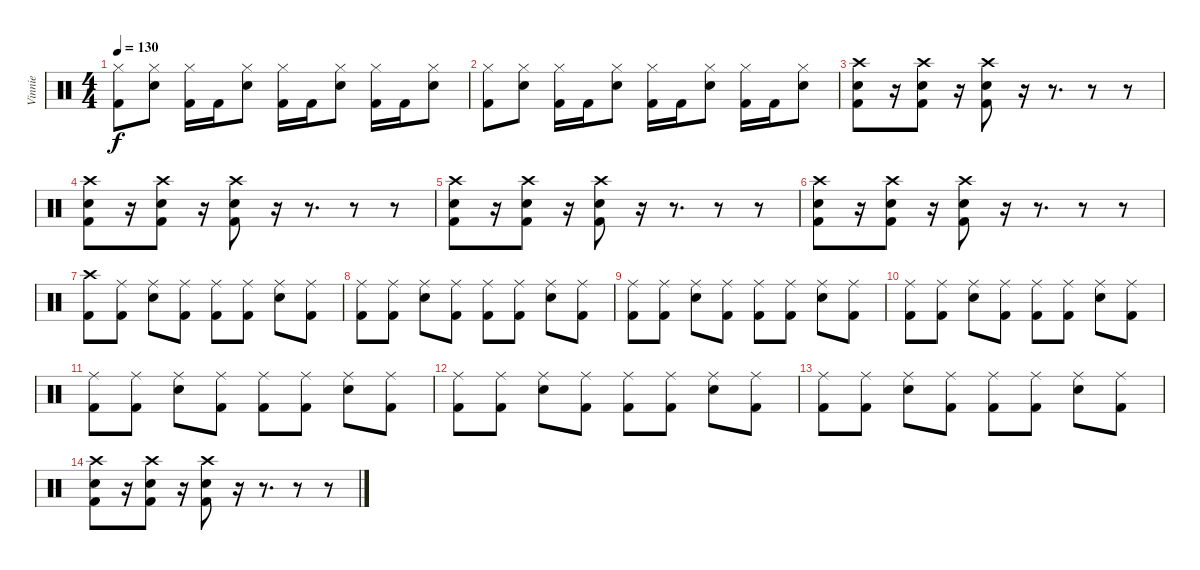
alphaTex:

\track ("Vinnie" "Vinnie") {instrument percussion}
\staff {score}
\articulation defaults
\ts (4 4)
\tempo 130
\clef neutral
\ks c
("Hi-Hat (closed)" "Kick (hit) 2").8{dy f} ("Hi-Hat (closed)" "Electric Snare (hit)").8 ("Hi-Hat (closed)" "Kick (hit) 2").16 "Kick (hit) 2".16 ("Hi-Hat (closed)" "Electric Snare (hit)").8 ("Hi-Hat (closed)" "Kick (hit) 2").16 "Kick (hit) 2".16 ("Hi-Hat (closed)" "Electric Snare (hit)").8 ("Hi-Hat (closed)" "Kick (hit) 2").16 "Kick (hit) 2".16 ("Hi-Hat (closed)" "Electric Snare (hit)").8 |
("Hi-Hat (closed)" "Kick (hit) 2").8 ("Hi-Hat (closed)" "Electric Snare (hit)").8 ("Hi-Hat (closed)" "Kick (hit) 2").16 "Kick (hit) 2".16 ("Hi-Hat (closed)" "Electric Snare (hit)").8 ("Hi-Hat (closed)" "Kick (hit) 2").16 "Kick (hit) 2".16 ("Hi-Hat (closed)" "Electric Snare (hit)").8 ("Hi-Hat (closed)" "Kick (hit) 2").16 "Kick (hit) 2".16 ("Hi-Hat (closed)" "Electric Snare (hit)").8 |
("Crash high (hit)" "Electric Snare (hit)" "Kick (hit) 2").8 r.16 ("Crash high (hit)" "Electric Snare (hit)" "Kick (hit) 2").8 r.16 ("Crash high (hit)" "Electric Snare (hit)" "Kick (hit) 2").8 r.16 r.8{d} r.8 r.8 |
("Crash high (hit)" "Electric Snare (hit)" "Kick (hit) 2").8 r.16 ("Crash high (hit)" "Electric Snare (hit)" "Kick (hit) 2").8 r.16 ("Crash high (hit)" "Electric Snare (hit)" "Kick (hit) 2").8 r.16 r.8{d} r.8 r.8 |
("Crash high (hit)" "Electric Snare (hit)" "Kick (hit) 2").8 r.16 ("Crash high (hit)" "Electric Snare (hit)" "Kick (hit) 2").8 r.16 ("Crash high (hit)" "Electric Snare (hit)" "Kick (hit) 2").8 r.16 r.8{d} r.8 r.8 |
("Crash high (hit)" "Electric Snare (hit)" "Kick (hit) 2").8 r.16 ("Crash high (hit)" "Electric Snare (hit)" "Kick (hit) 2").8 r.16 ("Crash high (hit)" "Electric Snare (hit)" "Kick (hit) 2").8 r.16 r.8{d} r.8 r.8 |
("Crash high (hit)" "Kick (hit) 2").8 ("Ride (middle)" "Kick (hit) 2").8 ("Ride (middle)" "Electric Snare (hit)").8 ("Ride (middle)" "Kick (hit) 2").8 ("Ride (middle)" "Kick (hit) 2").8 ("Ride (middle)" "Kick (hit) 2").8 ("Ride (middle)" "Electric Snare (hit)").8 ("Ride (middle)" "Kick (hit) 2").8 |
("Ride (middle)" "Kick (hit) 2").8 ("Ride (middle)" "Kick (hit) 2").8 ("Ride (middle)" "Electric Snare (hit)").8 ("Ride (middle)" "Kick (hit) 2").8 ("Ride (middle)" "Kick (hit) 2").8 ("Ride (middle)" "Kick (hit) 2").8 ("Ride (middle)" "Electric Snare (hit)").8 ("Ride (middle)" "Kick (hit) 2").8 |
("Ride (middle)" "Kick (hit) 2").8 ("Ride (middle)" "Kick (hit) 2").8 ("Ride (middle)" "Electric Snare (hit)").8 ("Ride (middle)" "Kick (hit) 2").8 ("Ride (middle)" "Kick (hit) 2").8 ("Ride (middle)" "Kick (hit) 2").8 ("Ride (middle)" "Electric Snare (hit)").8 ("Ride (middle)" "Kick (hit) 2").8 |
("Ride (middle)" "Kick (hit) 2").8 ("Ride (middle)" "Kick (hit) 2").8 ("Ride (middle)" "Electric Snare (hit)").8 ("Ride (middle)" "Kick (hit) 2").8 ("Ride (middle)" "Kick (hit) 2").8 ("Ride (middle)" "Kick (hit) 2").8 ("Ride (middle)" "Electric Snare (hit)").8 ("Ride (middle)" "Kick (hit) 2").8 |
("Ride (middle)" "Kick (hit) 2").8 ("Ride (middle)" "Kick (hit) 2").8 ("Ride (middle)" "Electric Snare (hit)").8 ("Ride (middle)" "Kick (hit) 2").8 ("Ride (middle)" "Kick (hit) 2").8 ("Ride (middle)" "Kick (hit) 2").8 ("Ride (middle)" "Electric Snare (hit)").8 ("Ride (middle)" "Kick (hit) 2").8 |
("Ride (middle)" "Kick (hit) 2").8 ("Ride (middle)" "Kick (hit) 2").8 ("Ride (middle)" "Electric Snare (hit)").8 ("Ride (middle)" "Kick (hit) 2").8 ("Ride (middle)" "Kick (hit) 2").8 ("Ride (middle)" "Kick (hit) 2").8 ("Ride (middle)" "Electric Snare (hit)").8 ("Ride (middle)" "Kick (hit) 2").8 |
("Ride (middle)" "Kick (hit) 2").8 ("Ride (middle)" "Kick (hit) 2").8 ("Ride (middle)" "Electric Snare (hit)").8 ("Ride (middle)" "Kick (hit) 2").8 ("Ride (middle)" "Kick (hit) 2").8 ("Ride (middle)" "Kick (hit) 2").8 ("Ride (middle)" "Electric Snare (hit)").8 ("Ride (middle)" "Kick (hit) 2").8 |
("Crash high (hit)" "Electric Snare (hit)" "Kick (hit) 2").8 r.16 ("Crash high (hit)" "Electric Snare (hit)" "Kick (hit) 2").8 r.16 ("Crash high (hit)" "Electric Snare (hit)" "Kick (hit) 2").8 r.16 r.8{d} r.8 r.8
